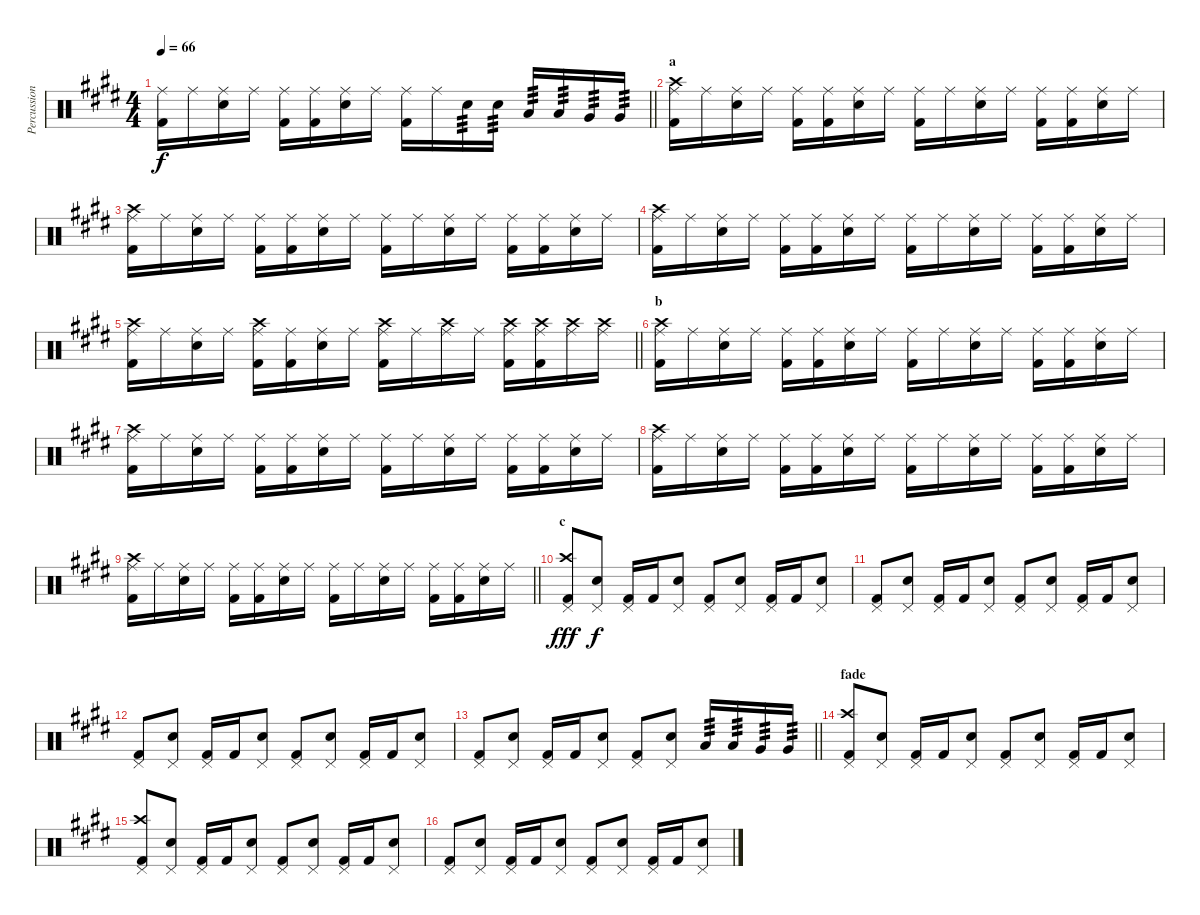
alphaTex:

\track ("Percussion" "Percussion") {instrument percussion}
\staff {score}
\articulation defaults
\ts (4 4)
\tempo 66
\clef neutral
\barLineRight lightlight
\ks e
("Ride (middle)" "Kick (hit) 2").16{dy f} "Ride (middle)".16 ("Ride (middle)" "Electric Snare (hit)").16 "Ride (middle)".16 ("Ride (middle)" "Kick (hit) 2").16 ("Ride (middle)" "Kick (hit) 2").16 ("Ride (middle)" "Electric Snare (hit)").16 "Ride (middle)".16 ("Ride (middle)" "Kick (hit) 2").16 "Ride (middle)".16 "Electric Snare (hit)".16{tp 3} "Electric Snare (hit)".16{tp 3} "Low Tom (hit)".16{tp 3} "Low Tom (hit)".16{tp 3} "Very Low Tom (hit)".16{tp 3} "Very Low Tom (hit)".16{tp 3} |
\section ("" "a")
("Crash high (hit)" "Ride (middle)" "Kick (hit) 2").16 "Ride (middle)".16 ("Ride (middle)" "Electric Snare (hit)").16 "Ride (middle)".16 ("Ride (middle)" "Kick (hit) 2").16 ("Ride (middle)" "Kick (hit) 2").16 ("Ride (middle)" "Electric Snare (hit)").16 "Ride (middle)".16 ("Ride (middle)" "Kick (hit) 2").16 "Ride (middle)".16 ("Ride (middle)" "Electric Snare (hit)").16 "Ride (middle)".16 ("Ride (middle)" "Kick (hit) 2").16 ("Ride (middle)" "Kick (hit) 2").16 ("Ride (middle)" "Electric Snare (hit)").16 "Ride (middle)".16 |
("Crash high (hit)" "Ride (middle)" "Kick (hit) 2").16 "Ride (middle)".16 ("Ride (middle)" "Electric Snare (hit)").16 "Ride (middle)".16 ("Ride (middle)" "Kick (hit) 2").16 ("Ride (middle)" "Kick (hit) 2").16 ("Ride (middle)" "Electric Snare (hit)").16 "Ride (middle)".16 ("Ride (middle)" "Kick (hit) 2").16 "Ride (middle)".16 ("Ride (middle)" "Electric Snare (hit)").16 "Ride (middle)".16 ("Ride (middle)" "Kick (hit) 2").16 ("Ride (middle)" "Kick (hit) 2").16 ("Ride (middle)" "Electric Snare (hit)").16 "Ride (middle)".16 |
("Crash high (hit)" "Ride (middle)" "Kick (hit) 2").16 "Ride (middle)".16 ("Ride (middle)" "Electric Snare (hit)").16 "Ride (middle)".16 ("Ride (middle)" "Kick (hit) 2").16 ("Ride (middle)" "Kick (hit) 2").16 ("Ride (middle)" "Electric Snare (hit)").16 "Ride (middle)".16 ("Ride (middle)" "Kick (hit) 2").16 "Ride (middle)".16 ("Ride (middle)" "Electric Snare (hit)").16 "Ride (middle)".16 ("Ride (middle)" "Kick (hit) 2").16 ("Ride (middle)" "Kick (hit) 2").16 ("Ride (middle)" "Electric Snare (hit)").16 "Ride (middle)".16 |
\barLineRight lightlight
("Crash high (hit)" "Ride (middle)" "Kick (hit) 2").16 "Ride (middle)".16 ("Ride (middle)" "Electric Snare (hit)").16 "Ride (middle)".16 ("Crash high (hit)" "Ride (middle)" "Kick (hit) 2").16 ("Ride (middle)" "Kick (hit) 2").16 ("Ride (middle)" "Electric Snare (hit)").16 "Ride (middle)".16 ("Crash high (hit)" "Ride (middle)" "Kick (hit) 2").16 "Ride (middle)".16 ("Crash high (hit)" "Ride (middle)").16 "Ride (middle)".16 ("Crash high (hit)" "Ride (middle)" "Kick (hit) 2").16 ("Crash high (hit)" "Ride (middle)" "Kick (hit) 2").16 ("Crash high (hit)" "Ride (middle)").16 ("Crash high (hit)" "Ride (middle)").16 |
\section ("" "b")
("Crash high (hit)" "Ride (middle)" "Kick (hit) 2").16 "Ride (middle)".16 ("Ride (middle)" "Electric Snare (hit)").16 "Ride (middle)".16 ("Ride (middle)" "Kick (hit) 2").16 ("Ride (middle)" "Kick (hit) 2").16 ("Ride (middle)" "Electric Snare (hit)").16 "Ride (middle)".16 ("Ride (middle)" "Kick (hit) 2").16 "Ride (middle)".16 ("Ride (middle)" "Electric Snare (hit)").16 "Ride (middle)".16 ("Ride (middle)" "Kick (hit) 2").16 ("Ride (middle)" "Kick (hit) 2").16 ("Ride (middle)" "Electric Snare (hit)").16 "Ride (middle)".16 |
("Crash high (hit)" "Ride (middle)" "Kick (hit) 2").16 "Ride (middle)".16 ("Ride (middle)" "Electric Snare (hit)").16 "Ride (middle)".16 ("Ride (middle)" "Kick (hit) 2").16 ("Ride (middle)" "Kick (hit) 2").16 ("Ride (middle)" "Electric Snare (hit)").16 "Ride (middle)".16 ("Ride (middle)" "Kick (hit) 2").16 "Ride (middle)".16 ("Ride (middle)" "Electric Snare (hit)").16 "Ride (middle)".16 ("Ride (middle)" "Kick (hit) 2").16 ("Ride (middle)" "Kick (hit) 2").16 ("Ride (middle)" "Electric Snare (hit)").16 "Ride (middle)".16 |
("Crash high (hit)" "Ride (middle)" "Kick (hit) 2").16 "Ride (middle)".16 ("Ride (middle)" "Electric Snare (hit)").16 "Ride (middle)".16 ("Ride (middle)" "Kick (hit) 2").16 ("Ride (middle)" "Kick (hit) 2").16 ("Ride (middle)" "Electric Snare (hit)").16 "Ride (middle)".16 ("Ride (middle)" "Kick (hit) 2").16 "Ride (middle)".16 ("Ride (middle)" "Electric Snare (hit)").16 "Ride (middle)".16 ("Ride (middle)" "Kick (hit) 2").16 ("Ride (middle)" "Kick (hit) 2").16 ("Ride (middle)" "Electric Snare (hit)").16 "Ride (middle)".16 |
\barLineRight lightlight
("Crash high (hit)" "Ride (middle)" "Kick (hit) 2").16 "Ride (middle)".16 ("Ride (middle)" "Electric Snare (hit)").16 "Ride (middle)".16 ("Ride (middle)" "Kick (hit) 2").16 ("Ride (middle)" "Kick (hit) 2").16 ("Ride (middle)" "Electric Snare (hit)").16 "Ride (middle)".16 ("Ride (middle)" "Kick (hit) 2").16 "Ride (middle)".16 ("Ride (middle)" "Electric Snare (hit)").16 "Ride (middle)".16 ("Ride (middle)" "Kick (hit) 2").16 ("Ride (middle)" "Kick (hit) 2").16 ("Ride (middle)" "Electric Snare (hit)").16 "Ride (middle)".16 |
\section ("" "c")
("Crash high (hit)" "Pedal Hi-Hat (hit)" "Kick (hit) 2").8{dy fff} ("Pedal Hi-Hat (hit)" "Electric Snare (hit)").8{dy f} ("Pedal Hi-Hat (hit)" "Kick (hit) 2").16 "Kick (hit) 2".16 ("Pedal Hi-Hat (hit)" "Electric Snare (hit)").8 ("Pedal Hi-Hat (hit)" "Kick (hit) 2").8 ("Pedal Hi-Hat (hit)" "Electric Snare (hit)").8 ("Pedal Hi-Hat (hit)" "Kick (hit) 2").16 "Kick (hit) 2".16 ("Pedal Hi-Hat (hit)" "Electric Snare (hit)").8 |
("Pedal Hi-Hat (hit)" "Kick (hit) 2").8 ("Pedal Hi-Hat (hit)" "Electric Snare (hit)").8 ("Pedal Hi-Hat (hit)" "Kick (hit) 2").16 "Kick (hit) 2".16 ("Pedal Hi-Hat (hit)" "Electric Snare (hit)").8 ("Pedal Hi-Hat (hit)" "Kick (hit) 2").8 ("Pedal Hi-Hat (hit)" "Electric Snare (hit)").8 ("Pedal Hi-Hat (hit)" "Kick (hit) 2").16 "Kick (hit) 2".16 ("Pedal Hi-Hat (hit)" "Electric Snare (hit)").8 |
("Pedal Hi-Hat (hit)" "Kick (hit) 2").8 ("Pedal Hi-Hat (hit)" "Electric Snare (hit)").8 ("Pedal Hi-Hat (hit)" "Kick (hit) 2").16 "Kick (hit) 2".16 ("Pedal Hi-Hat (hit)" "Electric Snare (hit)").8 ("Pedal Hi-Hat (hit)" "Kick (hit) 2").8 ("Pedal Hi-Hat (hit)" "Electric Snare (hit)").8 ("Pedal Hi-Hat (hit)" "Kick (hit) 2").16 "Kick (hit) 2".16 ("Pedal Hi-Hat (hit)" "Electric Snare (hit)").8 |
\barLineRight lightlight
("Pedal Hi-Hat (hit)" "Kick (hit) 2").8 ("Pedal Hi-Hat (hit)" "Electric Snare (hit)").8 ("Pedal Hi-Hat (hit)" "Kick (hit) 2").16 "Kick (hit) 2".16 ("Pedal Hi-Hat (hit)" "Electric Snare (hit)").8 ("Pedal Hi-Hat (hit)" "Kick (hit) 2").8 ("Pedal Hi-Hat (hit)" "Electric Snare (hit)").8 "Low Tom (hit)".16{tp 3} "Low Tom (hit)".16{tp 3} "Very Low Tom (hit)".16{tp 3} "Very Low Tom (hit)".16{tp 3} |
\section ("" "fade")
("Crash high (hit)" "Pedal Hi-Hat (hit)" "Kick (hit) 2").8{volume 7} ("Pedal Hi-Hat (hit)" "Electric Snare (hit)").8 ("Pedal Hi-Hat (hit)" "Kick (hit) 2").16 "Kick (hit) 2".16 ("Pedal Hi-Hat (hit)" "Electric Snare (hit)").8 ("Pedal Hi-Hat (hit)" "Kick (hit) 2").8 ("Pedal Hi-Hat (hit)" "Electric Snare (hit)").8 ("Pedal Hi-Hat (hit)" "Kick (hit) 2").16 "Kick (hit) 2".16 ("Pedal Hi-Hat (hit)" "Electric Snare (hit)").8 |
("Crash high (hit)" "Pedal Hi-Hat (hit)" "Kick (hit) 2").8 ("Pedal Hi-Hat (hit)" "Electric Snare (hit)").8 ("Pedal Hi-Hat (hit)" "Kick (hit) 2").16 "Kick (hit) 2".16 ("Pedal Hi-Hat (hit)" "Electric Snare (hit)").8 ("Pedal Hi-Hat (hit)" "Kick (hit) 2").8 ("Pedal Hi-Hat (hit)" "Electric Snare (hit)").8 ("Pedal Hi-Hat (hit)" "Kick (hit) 2").16 "Kick (hit) 2".16 ("Pedal Hi-Hat (hit)" "Electric Snare (hit)").8 |
("Pedal Hi-Hat (hit)" "Kick (hit) 2").8 ("Pedal Hi-Hat (hit)" "Electric Snare (hit)").8 ("Pedal Hi-Hat (hit)" "Kick (hit) 2").16 "Kick (hit) 2".16 ("Pedal Hi-Hat (hit)" "Electric Snare (hit)").8 ("Pedal Hi-Hat (hit)" "Kick (hit) 2").8 ("Pedal Hi-Hat (hit)" "Electric Snare (hit)").8 ("Pedal Hi-Hat (hit)" "Kick (hit) 2").16 "Kick (hit) 2".16 ("Pedal Hi-Hat (hit)" "Electric Snare (hit)").8
